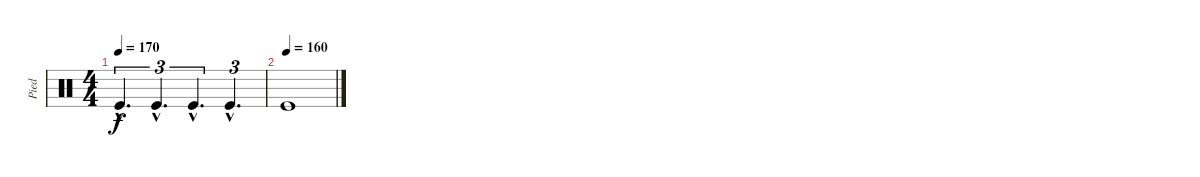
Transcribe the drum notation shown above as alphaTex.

\track ("Pied" "Pied") {instrument percussion}
\staff {score}
\articulation defaults
\ts (4 4)
\tempo 170
\clef neutral
\ks c "Kick (hit)"{hac}.4{d tu (3 2) dy f} "Kick (hit)"{hac}.4{d tu (3 2)} "Kick (hit)"{hac}.4{d tu (3 2)} "Kick (hit)"{hac}.4{d tu (3 2)}
|
\tempo (160)
"Kick (hit)".1
